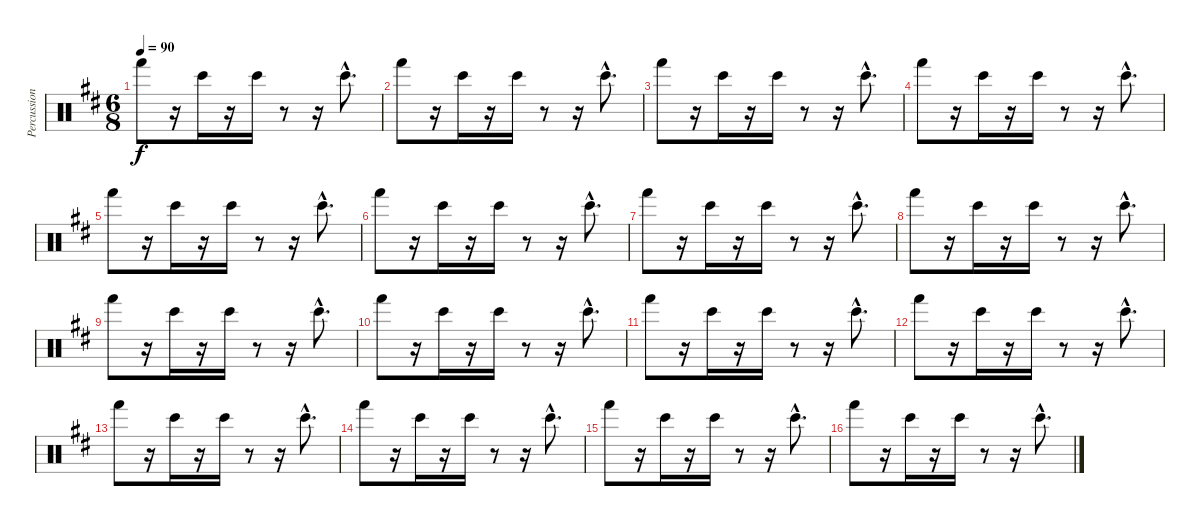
\track ("Percussioni" "Percussion") {instrument percussion}
\staff {score}
\articulation defaults
\ts (6 8)
\tempo 90
\clef neutral
\ks bminor "Hand (hit)".8{dy f}
r.16 "Bongo High (hit)".16 r.16 "Bongo High (hit)".16 r.8 r.16 "Bongo High (hit)"{hac}.8{d} |
"Hand (hit)".8 r.16 "Bongo High (hit)".16 r.16 "Bongo High (hit)".16 r.8 r.16 "Bongo High (hit)"{hac}.8{d} |
"Hand (hit)".8 r.16 "Bongo High (hit)".16 r.16 "Bongo High (hit)".16 r.8 r.16 "Bongo High (hit)"{hac}.8{d} |
"Hand (hit)".8 r.16 "Bongo High (hit)".16 r.16 "Bongo High (hit)".16 r.8 r.16 "Bongo High (hit)"{hac}.8{d} |
"Hand (hit)".8 r.16 "Bongo High (hit)".16 r.16 "Bongo High (hit)".16 r.8 r.16 "Bongo High (hit)"{hac}.8{d} |
"Hand (hit)".8 r.16 "Bongo High (hit)".16 r.16 "Bongo High (hit)".16 r.8 r.16 "Bongo High (hit)"{hac}.8{d} |
"Hand (hit)".8 r.16 "Bongo High (hit)".16 r.16 "Bongo High (hit)".16 r.8 r.16 "Bongo High (hit)"{hac}.8{d} |
"Hand (hit)".8 r.16 "Bongo High (hit)".16 r.16 "Bongo High (hit)".16 r.8 r.16 "Bongo High (hit)"{hac}.8{d} |
"Hand (hit)".8 r.16 "Bongo High (hit)".16 r.16 "Bongo High (hit)".16 r.8 r.16 "Bongo High (hit)"{hac}.8{d} |
"Hand (hit)".8 r.16 "Bongo High (hit)".16 r.16 "Bongo High (hit)".16 r.8 r.16 "Bongo High (hit)"{hac}.8{d} |
"Hand (hit)".8 r.16 "Bongo High (hit)".16 r.16 "Bongo High (hit)".16 r.8 r.16 "Bongo High (hit)"{hac}.8{d} |
"Hand (hit)".8 r.16 "Bongo High (hit)".16 r.16 "Bongo High (hit)".16 r.8 r.16 "Bongo High (hit)"{hac}.8{d} |
"Hand (hit)".8 r.16 "Bongo High (hit)".16 r.16 "Bongo High (hit)".16 r.8 r.16 "Bongo High (hit)"{hac}.8{d} |
"Hand (hit)".8 r.16 "Bongo High (hit)".16 r.16 "Bongo High (hit)".16 r.8 r.16 "Bongo High (hit)"{hac}.8{d} |
"Hand (hit)".8 r.16 "Bongo High (hit)".16 r.16 "Bongo High (hit)".16 r.8 r.16 "Bongo High (hit)"{hac}.8{d} |
"Hand (hit)".8 r.16 "Bongo High (hit)".16 r.16 "Bongo High (hit)".16 r.8 r.16 "Bongo High (hit)"{hac}.8{d}
